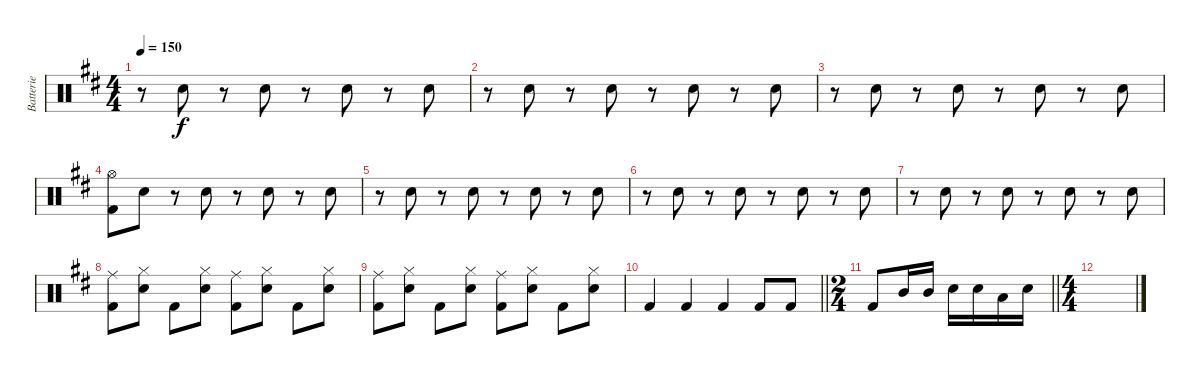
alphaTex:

\track ("Batterie" "Batterie") {instrument percussion}
\staff {score}
\articulation defaults
\ts (4 4)
\tempo 150
\clef neutral
\ks d
r.8{dy f} "Snare (hit) 2".8 r.8 "Snare (hit) 2".8 r.8 "Snare (hit) 2".8 r.8 "Snare (hit) 2".8 |
r.8 "Snare (hit) 2".8 r.8 "Snare (hit) 2".8 r.8 "Snare (hit) 2".8 r.8 "Snare (hit) 2".8 |
r.8 "Snare (hit) 2".8 r.8 "Snare (hit) 2".8 r.8 "Snare (hit) 2".8 r.8 "Snare (hit) 2".8 |
("Hi-Hat (open)" "Kick (hit) 2").8 "Snare (hit) 2".8 r.8 "Snare (hit) 2".8 r.8 "Snare (hit) 2".8 r.8 "Snare (hit) 2".8 |
r.8 "Snare (hit) 2".8 r.8 "Snare (hit) 2".8 r.8 "Snare (hit) 2".8 r.8 "Snare (hit) 2".8 |
r.8 "Snare (hit) 2".8 r.8 "Snare (hit) 2".8 r.8 "Snare (hit) 2".8 r.8 "Snare (hit) 2".8 |
r.8 "Snare (hit) 2".8 r.8 "Snare (hit) 2".8 r.8 "Snare (hit) 2".8 r.8 "Snare (hit) 2".8 |
("Ride (middle)" "Kick (hit) 2").8 ("Hi-Hat (closed)" "Snare (hit) 2").8 "Kick (hit) 2".8 ("Hi-Hat (closed)" "Snare (hit) 2").8 ("Ride (middle)" "Kick (hit) 2").8 ("Hi-Hat (closed)" "Snare (hit) 2").8 "Kick (hit) 2".8 ("Hi-Hat (closed)" "Snare (hit) 2").8 |
("Ride (middle)" "Kick (hit) 2").8 ("Hi-Hat (closed)" "Snare (hit) 2").8 "Kick (hit) 2".8 ("Hi-Hat (closed)" "Snare (hit) 2").8 ("Ride (middle)" "Kick (hit) 2").8 ("Hi-Hat (closed)" "Snare (hit) 2").8 "Kick (hit) 2".8 ("Hi-Hat (closed)" "Snare (hit) 2").8 |
\barLineRight lightlight "Kick (hit) 2".4 "Kick (hit) 2".4 "Kick (hit) 2".4 "Kick (hit) 2".8 "Kick (hit) 2".8
|
\ts (2 4)
\barLineRight lightlight "Kick (hit) 2".8 "Mid Tom (hit)".16 "Mid Tom (hit)".16 "Snare (hit) 2".16 "Snare (hit) 2".16 "Low Floor Tom (hit)".16 "Snare (hit) 2".16
|
\ts (4 4)
